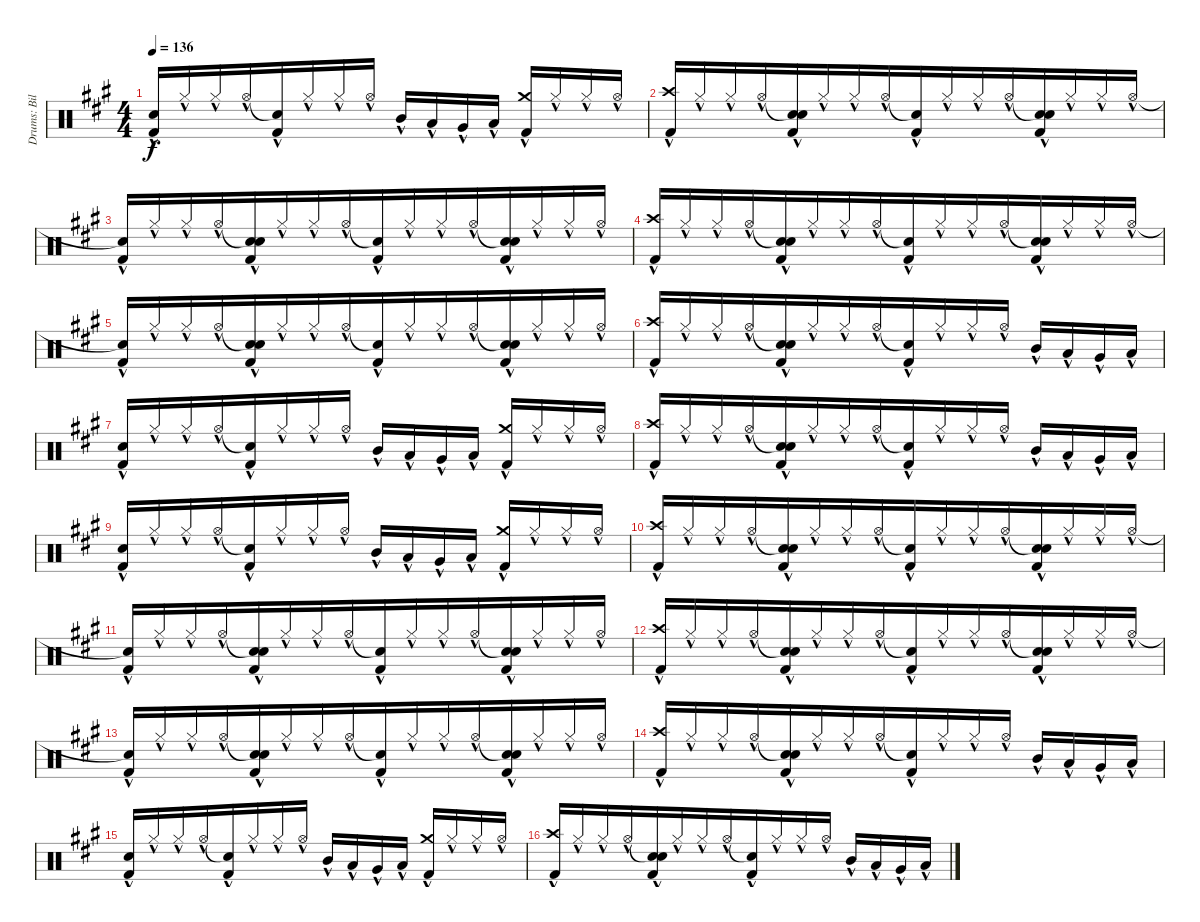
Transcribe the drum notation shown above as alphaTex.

\track ("Drums: Bill" "Drums: Bil") {instrument percussion}
\staff {score}
\articulation defaults
\ts (4 4)
\tempo 136
\clef neutral
\ks a
("Electric Snare (hit)"{hac} "Kick (hit) 2"{hac}).16{dy f beam Up beam merge} "Hi-Hat (closed)"{hac}.16{beam Up beam merge} "Hi-Hat (closed)"{hac}.16{beam Up beam merge} "Hi-Hat (open)"{hac}.16{beam Up beam merge} ("Snare (hit)"{t} "Kick (hit) 2"{hac}).16{beam Up beam merge} "Hi-Hat (closed)"{hac}.16{beam Up beam merge} "Hi-Hat (closed)"{hac}.16{beam Up beam merge} "Hi-Hat (open)"{hac}.16{beam Up} "Mid Tom (hit)"{hac}.16 "Low Tom (hit)"{hac}.16 "Very Low Tom (hit)"{hac}.16 "Low Floor Tom (hit)"{hac}.16 ("Crash medium (hit)"{hac} "Kick (hit) 2"{hac}).16{beam Up beam merge} "Hi-Hat (closed)"{hac}.16{beam Up beam merge} "Hi-Hat (closed)"{hac}.16{beam Up beam merge} "Hi-Hat (open)"{hac}.16{beam Up} |
("Crash high (hit)"{hac} "Kick (hit) 2"{hac}).16{beam Up beam merge} "Hi-Hat (closed)"{hac}.16{beam Up beam merge} "Hi-Hat (closed)"{hac}.16{beam Up beam merge} "Hi-Hat (open)"{hac}.16{beam Up beam merge} ("Snare (hit)"{t} "Electric Snare (hit)"{hac} "Kick (hit) 2"{hac}).16{beam Up beam merge} "Hi-Hat (closed)"{hac}.16{beam Up beam merge} "Hi-Hat (closed)"{hac}.16{beam Up beam merge} "Hi-Hat (open)"{hac}.16{beam Up beam merge} ("Snare (hit)"{t} "Kick (hit) 2"{hac}).16{beam Up beam merge} "Hi-Hat (closed)"{hac}.16{beam Up beam merge} "Hi-Hat (closed)"{hac}.16{beam Up beam merge} "Hi-Hat (open)"{hac}.16{beam Up beam merge} ("Snare (hit)"{t} "Electric Snare (hit)"{hac} "Kick (hit) 2"{hac}).16{beam Up beam merge} "Hi-Hat (closed)"{hac}.16{beam Up beam merge} "Hi-Hat (closed)"{hac}.16{beam Up beam merge} "Hi-Hat (open)"{hac}.16{beam Up} |
("Snare (hit)"{t} "Kick (hit) 2"{hac}).16{beam Up beam merge} "Hi-Hat (closed)"{hac}.16{beam Up beam merge} "Hi-Hat (closed)"{hac}.16{beam Up beam merge} "Hi-Hat (open)"{hac}.16{beam Up beam merge} ("Snare (hit)"{t} "Electric Snare (hit)"{hac} "Kick (hit) 2"{hac}).16{beam Up beam merge} "Hi-Hat (closed)"{hac}.16{beam Up beam merge} "Hi-Hat (closed)"{hac}.16{beam Up beam merge} "Hi-Hat (open)"{hac}.16{beam Up beam merge} ("Snare (hit)"{t} "Kick (hit) 2"{hac}).16{beam Up beam merge} "Hi-Hat (closed)"{hac}.16{beam Up beam merge} "Hi-Hat (closed)"{hac}.16{beam Up beam merge} "Hi-Hat (open)"{hac}.16{beam Up beam merge} ("Snare (hit)"{t} "Electric Snare (hit)" "Kick (hit) 2"{hac}).16{beam Up beam merge} "Hi-Hat (closed)"{hac}.16{beam Up beam merge} "Hi-Hat (closed)"{hac}.16{beam Up beam merge} "Hi-Hat (open)"{hac}.16{beam Up} |
("Crash high (hit)"{hac} "Kick (hit) 2"{hac}).16{beam Up beam merge} "Hi-Hat (closed)"{hac}.16{beam Up beam merge} "Hi-Hat (closed)"{hac}.16{beam Up beam merge} "Hi-Hat (open)"{hac}.16{beam Up beam merge} ("Snare (hit)"{t} "Electric Snare (hit)"{hac} "Kick (hit) 2"{hac}).16{beam Up beam merge} "Hi-Hat (closed)"{hac}.16{beam Up beam merge} "Hi-Hat (closed)"{hac}.16{beam Up beam merge} "Hi-Hat (open)"{hac}.16{beam Up beam merge} ("Snare (hit)"{t} "Kick (hit) 2"{hac}).16{beam Up beam merge} "Hi-Hat (closed)"{hac}.16{beam Up beam merge} "Hi-Hat (closed)"{hac}.16{beam Up beam merge} "Hi-Hat (open)"{hac}.16{beam Up beam merge} ("Snare (hit)"{t} "Electric Snare (hit)"{hac} "Kick (hit) 2"{hac}).16{beam Up beam merge} "Hi-Hat (closed)"{hac}.16{beam Up beam merge} "Hi-Hat (closed)"{hac}.16{beam Up beam merge} "Hi-Hat (open)"{hac}.16{beam Up} |
("Snare (hit)"{t} "Kick (hit) 2"{hac}).16{beam Up beam merge} "Hi-Hat (closed)"{hac}.16{beam Up beam merge} "Hi-Hat (closed)"{hac}.16{beam Up beam merge} "Hi-Hat (open)"{hac}.16{beam Up beam merge} ("Snare (hit)"{t} "Electric Snare (hit)"{hac} "Kick (hit) 2"{hac}).16{beam Up beam merge} "Hi-Hat (closed)"{hac}.16{beam Up beam merge} "Hi-Hat (closed)"{hac}.16{beam Up beam merge} "Hi-Hat (open)"{hac}.16{beam Up beam merge} ("Snare (hit)"{t} "Kick (hit) 2"{hac}).16{beam Up beam merge} "Hi-Hat (closed)"{hac}.16{beam Up beam merge} "Hi-Hat (closed)"{hac}.16{beam Up beam merge} "Hi-Hat (open)"{hac}.16{beam Up beam merge} ("Snare (hit)"{t} "Electric Snare (hit)" "Kick (hit) 2"{hac}).16{beam Up beam merge} "Hi-Hat (closed)"{hac}.16{beam Up beam merge} "Hi-Hat (closed)"{hac}.16{beam Up beam merge} "Hi-Hat (open)"{hac}.16{beam Up} |
("Crash high (hit)"{hac} "Kick (hit) 2"{hac}).16{beam Up beam merge} "Hi-Hat (closed)"{hac}.16{beam Up beam merge} "Hi-Hat (closed)"{hac}.16{beam Up beam merge} "Hi-Hat (open)"{hac}.16{beam Up beam merge} ("Snare (hit)"{t} "Electric Snare (hit)"{hac} "Kick (hit) 2"{hac}).16{beam Up beam merge} "Hi-Hat (closed)"{hac}.16{beam Up beam merge} "Hi-Hat (closed)"{hac}.16{beam Up beam merge} "Hi-Hat (open)"{hac}.16{beam Up beam merge} ("Snare (hit)"{t} "Kick (hit) 2"{hac}).16{beam Up beam merge} "Hi-Hat (closed)"{hac}.16{beam Up beam merge} "Hi-Hat (closed)"{hac}.16{beam Up beam merge} "Hi-Hat (open)"{hac}.16{beam Up} "Mid Tom (hit)"{hac}.16 "Low Tom (hit)"{hac}.16 "Very Low Tom (hit)"{hac}.16 "Low Floor Tom (hit)"{hac}.16 |
("Electric Snare (hit)"{hac} "Kick (hit) 2"{hac}).16{beam Up beam merge} "Hi-Hat (closed)"{hac}.16{beam Up beam merge} "Hi-Hat (closed)"{hac}.16{beam Up beam merge} "Hi-Hat (open)"{hac}.16{beam Up beam merge} ("Snare (hit)"{t} "Kick (hit) 2"{hac}).16{beam Up beam merge} "Hi-Hat (closed)"{hac}.16{beam Up beam merge} "Hi-Hat (closed)"{hac}.16{beam Up beam merge} "Hi-Hat (open)"{hac}.16{beam Up} "Mid Tom (hit)"{hac}.16 "Low Tom (hit)"{hac}.16 "Very Low Tom (hit)"{hac}.16 "Low Floor Tom (hit)"{hac}.16 ("Crash medium (hit)"{hac} "Kick (hit) 2"{hac}).16{beam Up beam merge} "Hi-Hat (closed)"{hac}.16{beam Up beam merge} "Hi-Hat (closed)"{hac}.16{beam Up beam merge} "Hi-Hat (open)"{hac}.16{beam Up} |
("Crash high (hit)"{hac} "Kick (hit) 2"{hac}).16{beam Up beam merge} "Hi-Hat (closed)"{hac}.16{beam Up beam merge} "Hi-Hat (closed)"{hac}.16{beam Up beam merge} "Hi-Hat (open)"{hac}.16{beam Up beam merge} ("Snare (hit)"{t} "Electric Snare (hit)"{hac} "Kick (hit) 2"{hac}).16{beam Up beam merge} "Hi-Hat (closed)"{hac}.16{beam Up beam merge} "Hi-Hat (closed)"{hac}.16{beam Up beam merge} "Hi-Hat (open)"{hac}.16{beam Up beam merge} ("Snare (hit)"{t} "Kick (hit) 2"{hac}).16{beam Up beam merge} "Hi-Hat (closed)"{hac}.16{beam Up beam merge} "Hi-Hat (closed)"{hac}.16{beam Up beam merge} "Hi-Hat (open)"{hac}.16{beam Up} "Mid Tom (hit)"{hac}.16 "Low Tom (hit)"{hac}.16 "Very Low Tom (hit)"{hac}.16 "Low Floor Tom (hit)"{hac}.16 |
("Electric Snare (hit)"{hac} "Kick (hit) 2"{hac}).16{beam Up beam merge} "Hi-Hat (closed)"{hac}.16{beam Up beam merge} "Hi-Hat (closed)"{hac}.16{beam Up beam merge} "Hi-Hat (open)"{hac}.16{beam Up beam merge} ("Snare (hit)"{t} "Kick (hit) 2"{hac}).16{beam Up beam merge} "Hi-Hat (closed)"{hac}.16{beam Up beam merge} "Hi-Hat (closed)"{hac}.16{beam Up beam merge} "Hi-Hat (open)"{hac}.16{beam Up} "Mid Tom (hit)"{hac}.16 "Low Tom (hit)"{hac}.16 "Very Low Tom (hit)"{hac}.16 "Low Floor Tom (hit)"{hac}.16 ("Crash medium (hit)"{hac} "Kick (hit) 2"{hac}).16{beam Up beam merge} "Hi-Hat (closed)"{hac}.16{beam Up beam merge} "Hi-Hat (closed)"{hac}.16{beam Up beam merge} "Hi-Hat (open)"{hac}.16{beam Up} |
("Crash high (hit)"{hac} "Kick (hit) 2"{hac}).16{beam Up beam merge} "Hi-Hat (closed)"{hac}.16{beam Up beam merge} "Hi-Hat (closed)"{hac}.16{beam Up beam merge} "Hi-Hat (open)"{hac}.16{beam Up beam merge} ("Snare (hit)"{t} "Electric Snare (hit)"{hac} "Kick (hit) 2"{hac}).16{beam Up beam merge} "Hi-Hat (closed)"{hac}.16{beam Up beam merge} "Hi-Hat (closed)"{hac}.16{beam Up beam merge} "Hi-Hat (open)"{hac}.16{beam Up beam merge} ("Snare (hit)"{t} "Kick (hit) 2"{hac}).16{beam Up beam merge} "Hi-Hat (closed)"{hac}.16{beam Up beam merge} "Hi-Hat (closed)"{hac}.16{beam Up beam merge} "Hi-Hat (open)"{hac}.16{beam Up beam merge} ("Snare (hit)"{t} "Electric Snare (hit)"{hac} "Kick (hit) 2"{hac}).16{beam Up beam merge} "Hi-Hat (closed)"{hac}.16{beam Up beam merge} "Hi-Hat (closed)"{hac}.16{beam Up beam merge} "Hi-Hat (open)"{hac}.16{beam Up} |
("Snare (hit)"{t} "Kick (hit) 2"{hac}).16{beam Up beam merge} "Hi-Hat (closed)"{hac}.16{beam Up beam merge} "Hi-Hat (closed)"{hac}.16{beam Up beam merge} "Hi-Hat (open)"{hac}.16{beam Up beam merge} ("Snare (hit)"{t} "Electric Snare (hit)"{hac} "Kick (hit) 2"{hac}).16{beam Up beam merge} "Hi-Hat (closed)"{hac}.16{beam Up beam merge} "Hi-Hat (closed)"{hac}.16{beam Up beam merge} "Hi-Hat (open)"{hac}.16{beam Up beam merge} ("Snare (hit)"{t} "Kick (hit) 2"{hac}).16{beam Up beam merge} "Hi-Hat (closed)"{hac}.16{beam Up beam merge} "Hi-Hat (closed)"{hac}.16{beam Up beam merge} "Hi-Hat (open)"{hac}.16{beam Up beam merge} ("Snare (hit)"{t} "Electric Snare (hit)" "Kick (hit) 2"{hac}).16{beam Up beam merge} "Hi-Hat (closed)"{hac}.16{beam Up beam merge} "Hi-Hat (closed)"{hac}.16{beam Up beam merge} "Hi-Hat (open)"{hac}.16{beam Up} |
("Crash high (hit)"{hac} "Kick (hit) 2"{hac}).16{beam Up beam merge} "Hi-Hat (closed)"{hac}.16{beam Up beam merge} "Hi-Hat (closed)"{hac}.16{beam Up beam merge} "Hi-Hat (open)"{hac}.16{beam Up beam merge} ("Snare (hit)"{t} "Electric Snare (hit)"{hac} "Kick (hit) 2"{hac}).16{beam Up beam merge} "Hi-Hat (closed)"{hac}.16{beam Up beam merge} "Hi-Hat (closed)"{hac}.16{beam Up beam merge} "Hi-Hat (open)"{hac}.16{beam Up beam merge} ("Snare (hit)"{t} "Kick (hit) 2"{hac}).16{beam Up beam merge} "Hi-Hat (closed)"{hac}.16{beam Up beam merge} "Hi-Hat (closed)"{hac}.16{beam Up beam merge} "Hi-Hat (open)"{hac}.16{beam Up beam merge} ("Snare (hit)"{t} "Electric Snare (hit)"{hac} "Kick (hit) 2"{hac}).16{beam Up beam merge} "Hi-Hat (closed)"{hac}.16{beam Up beam merge} "Hi-Hat (closed)"{hac}.16{beam Up beam merge} "Hi-Hat (open)"{hac}.16{beam Up} |
("Snare (hit)"{t} "Kick (hit) 2"{hac}).16{beam Up beam merge} "Hi-Hat (closed)"{hac}.16{beam Up beam merge} "Hi-Hat (closed)"{hac}.16{beam Up beam merge} "Hi-Hat (open)"{hac}.16{beam Up beam merge} ("Snare (hit)"{t} "Electric Snare (hit)"{hac} "Kick (hit) 2"{hac}).16{beam Up beam merge} "Hi-Hat (closed)"{hac}.16{beam Up beam merge} "Hi-Hat (closed)"{hac}.16{beam Up beam merge} "Hi-Hat (open)"{hac}.16{beam Up beam merge} ("Snare (hit)"{t} "Kick (hit) 2"{hac}).16{beam Up beam merge} "Hi-Hat (closed)"{hac}.16{beam Up beam merge} "Hi-Hat (closed)"{hac}.16{beam Up beam merge} "Hi-Hat (open)"{hac}.16{beam Up beam merge} ("Snare (hit)"{t} "Electric Snare (hit)" "Kick (hit) 2"{hac}).16{beam Up beam merge} "Hi-Hat (closed)"{hac}.16{beam Up beam merge} "Hi-Hat (closed)"{hac}.16{beam Up beam merge} "Hi-Hat (open)"{hac}.16{beam Up} |
("Crash high (hit)"{hac} "Kick (hit) 2"{hac}).16{beam Up beam merge} "Hi-Hat (closed)"{hac}.16{beam Up beam merge} "Hi-Hat (closed)"{hac}.16{beam Up beam merge} "Hi-Hat (open)"{hac}.16{beam Up beam merge} ("Snare (hit)"{t} "Electric Snare (hit)"{hac} "Kick (hit) 2"{hac}).16{beam Up beam merge} "Hi-Hat (closed)"{hac}.16{beam Up beam merge} "Hi-Hat (closed)"{hac}.16{beam Up beam merge} "Hi-Hat (open)"{hac}.16{beam Up beam merge} ("Snare (hit)"{t} "Kick (hit) 2"{hac}).16{beam Up beam merge} "Hi-Hat (closed)"{hac}.16{beam Up beam merge} "Hi-Hat (closed)"{hac}.16{beam Up beam merge} "Hi-Hat (open)"{hac}.16{beam Up} "Mid Tom (hit)"{hac}.16 "Low Tom (hit)"{hac}.16 "Very Low Tom (hit)"{hac}.16 "Low Floor Tom (hit)"{hac}.16 |
("Electric Snare (hit)"{hac} "Kick (hit) 2"{hac}).16{beam Up beam merge} "Hi-Hat (closed)"{hac}.16{beam Up beam merge} "Hi-Hat (closed)"{hac}.16{beam Up beam merge} "Hi-Hat (open)"{hac}.16{beam Up beam merge} ("Snare (hit)"{t} "Kick (hit) 2"{hac}).16{beam Up beam merge} "Hi-Hat (closed)"{hac}.16{beam Up beam merge} "Hi-Hat (closed)"{hac}.16{beam Up beam merge} "Hi-Hat (open)"{hac}.16{beam Up} "Mid Tom (hit)"{hac}.16 "Low Tom (hit)"{hac}.16 "Very Low Tom (hit)"{hac}.16 "Low Floor Tom (hit)"{hac}.16 ("Crash medium (hit)"{hac} "Kick (hit) 2"{hac}).16{beam Up beam merge} "Hi-Hat (closed)"{hac}.16{beam Up beam merge} "Hi-Hat (closed)"{hac}.16{beam Up beam merge} "Hi-Hat (open)"{hac}.16{beam Up} |
("Crash high (hit)"{hac} "Kick (hit) 2"{hac}).16{beam Up beam merge} "Hi-Hat (closed)"{hac}.16{beam Up beam merge} "Hi-Hat (closed)"{hac}.16{beam Up beam merge} "Hi-Hat (open)"{hac}.16{beam Up beam merge} ("Snare (hit)"{t} "Electric Snare (hit)"{hac} "Kick (hit) 2"{hac}).16{beam Up beam merge} "Hi-Hat (closed)"{hac}.16{beam Up beam merge} "Hi-Hat (closed)"{hac}.16{beam Up beam merge} "Hi-Hat (open)"{hac}.16{beam Up beam merge} ("Snare (hit)"{t} "Kick (hit) 2"{hac}).16{beam Up beam merge} "Hi-Hat (closed)"{hac}.16{beam Up beam merge} "Hi-Hat (closed)"{hac}.16{beam Up beam merge} "Hi-Hat (open)"{hac}.16{beam Up} "Mid Tom (hit)"{hac}.16 "Low Tom (hit)"{hac}.16 "Very Low Tom (hit)"{hac}.16 "Low Floor Tom (hit)"{hac}.16
